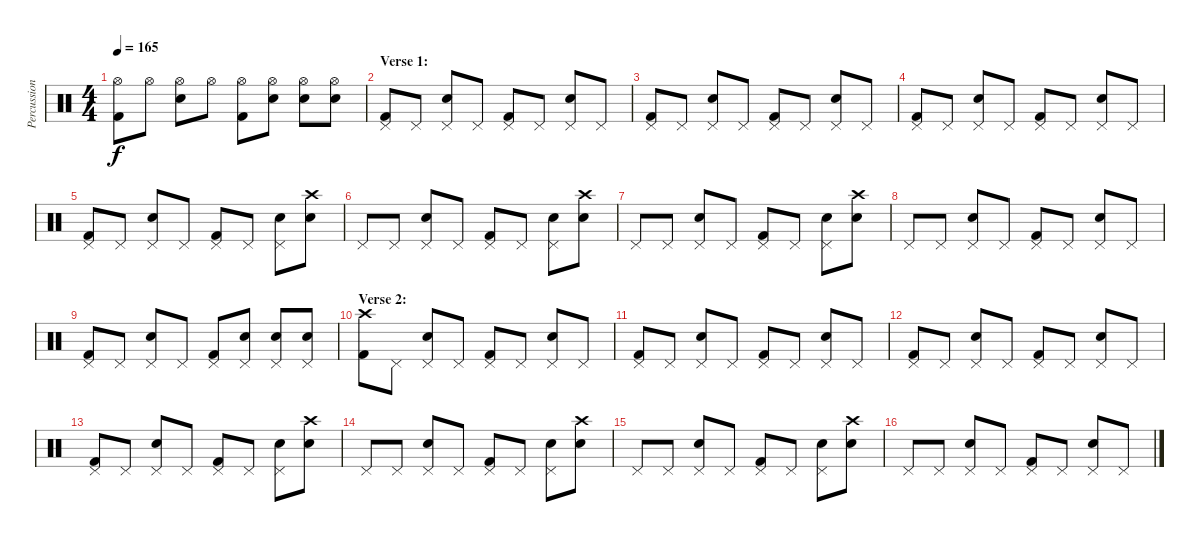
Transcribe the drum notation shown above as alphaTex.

\track ("Percussion" "Percussion") {instrument percussion}
\staff {score}
\articulation defaults
\ts (4 4)
\tempo 165
\clef neutral
\ks c
("Hi-Hat (open)" "Kick (hit) 2").8{dy f} "Hi-Hat (open)".8 ("Hi-Hat (open)" "Snare (hit) 2").8 "Hi-Hat (open)".8 ("Hi-Hat (open)" "Kick (hit) 2").8 ("Hi-Hat (open)" "Snare (hit) 2").8 ("Hi-Hat (open)" "Snare (hit) 2").8 ("Hi-Hat (open)" "Snare (hit) 2").8 |
\section ("" "Verse 1:")
("Pedal Hi-Hat (hit)" "Kick (hit) 2").8 "Pedal Hi-Hat (hit)".8 ("Pedal Hi-Hat (hit)" "Snare (hit) 2").8 "Pedal Hi-Hat (hit)".8 ("Pedal Hi-Hat (hit)" "Kick (hit) 2").8 "Pedal Hi-Hat (hit)".8 ("Pedal Hi-Hat (hit)" "Snare (hit) 2").8 "Pedal Hi-Hat (hit)".8 |
("Pedal Hi-Hat (hit)" "Kick (hit) 2").8 "Pedal Hi-Hat (hit)".8 ("Pedal Hi-Hat (hit)" "Snare (hit) 2").8 "Pedal Hi-Hat (hit)".8 ("Pedal Hi-Hat (hit)" "Kick (hit) 2").8 "Pedal Hi-Hat (hit)".8 ("Pedal Hi-Hat (hit)" "Snare (hit) 2").8 "Pedal Hi-Hat (hit)".8 |
("Pedal Hi-Hat (hit)" "Kick (hit) 2").8 "Pedal Hi-Hat (hit)".8 ("Pedal Hi-Hat (hit)" "Snare (hit) 2").8 "Pedal Hi-Hat (hit)".8 ("Pedal Hi-Hat (hit)" "Kick (hit) 2").8 "Pedal Hi-Hat (hit)".8 ("Pedal Hi-Hat (hit)" "Snare (hit) 2").8 "Pedal Hi-Hat (hit)".8 |
("Pedal Hi-Hat (hit)" "Kick (hit) 2").8 "Pedal Hi-Hat (hit)".8 ("Pedal Hi-Hat (hit)" "Snare (hit) 2").8 "Pedal Hi-Hat (hit)".8 ("Pedal Hi-Hat (hit)" "Kick (hit) 2").8 "Pedal Hi-Hat (hit)".8 ("Pedal Hi-Hat (hit)" "Snare (hit) 2").8 ("Crash high (hit)" "Snare (hit) 2").8 |
"Pedal Hi-Hat (hit)".8 "Pedal Hi-Hat (hit)".8 ("Pedal Hi-Hat (hit)" "Snare (hit) 2").8 "Pedal Hi-Hat (hit)".8 ("Pedal Hi-Hat (hit)" "Kick (hit) 2").8 "Pedal Hi-Hat (hit)".8 ("Pedal Hi-Hat (hit)" "Snare (hit) 2").8 ("Crash high (hit)" "Snare (hit) 2").8 |
"Pedal Hi-Hat (hit)".8 "Pedal Hi-Hat (hit)".8 ("Pedal Hi-Hat (hit)" "Snare (hit) 2").8 "Pedal Hi-Hat (hit)".8 ("Pedal Hi-Hat (hit)" "Kick (hit) 2").8 "Pedal Hi-Hat (hit)".8 ("Pedal Hi-Hat (hit)" "Snare (hit) 2").8 ("Crash high (hit)" "Snare (hit) 2").8 |
"Pedal Hi-Hat (hit)".8 "Pedal Hi-Hat (hit)".8 ("Pedal Hi-Hat (hit)" "Snare (hit) 2").8 "Pedal Hi-Hat (hit)".8 ("Pedal Hi-Hat (hit)" "Kick (hit) 2").8 "Pedal Hi-Hat (hit)".8 ("Pedal Hi-Hat (hit)" "Snare (hit) 2").8 "Pedal Hi-Hat (hit)".8 |
("Pedal Hi-Hat (hit)" "Kick (hit) 2").8 "Pedal Hi-Hat (hit)".8 ("Pedal Hi-Hat (hit)" "Snare (hit) 2").8 "Pedal Hi-Hat (hit)".8 ("Pedal Hi-Hat (hit)" "Kick (hit) 2").8 ("Pedal Hi-Hat (hit)" "Snare (hit) 2").8 ("Pedal Hi-Hat (hit)" "Snare (hit) 2").8 ("Pedal Hi-Hat (hit)" "Snare (hit) 2").8 |
\section ("" "Verse 2:")
("Crash high (hit)" "Kick (hit) 2").8 "Pedal Hi-Hat (hit)".8 ("Pedal Hi-Hat (hit)" "Snare (hit) 2").8 "Pedal Hi-Hat (hit)".8 ("Pedal Hi-Hat (hit)" "Kick (hit) 2").8 "Pedal Hi-Hat (hit)".8 ("Pedal Hi-Hat (hit)" "Snare (hit) 2").8 "Pedal Hi-Hat (hit)".8 |
("Pedal Hi-Hat (hit)" "Kick (hit) 2").8 "Pedal Hi-Hat (hit)".8 ("Pedal Hi-Hat (hit)" "Snare (hit) 2").8 "Pedal Hi-Hat (hit)".8 ("Pedal Hi-Hat (hit)" "Kick (hit) 2").8 "Pedal Hi-Hat (hit)".8 ("Pedal Hi-Hat (hit)" "Snare (hit) 2").8 "Pedal Hi-Hat (hit)".8 |
("Pedal Hi-Hat (hit)" "Kick (hit) 2").8 "Pedal Hi-Hat (hit)".8 ("Pedal Hi-Hat (hit)" "Snare (hit) 2").8 "Pedal Hi-Hat (hit)".8 ("Pedal Hi-Hat (hit)" "Kick (hit) 2").8 "Pedal Hi-Hat (hit)".8 ("Pedal Hi-Hat (hit)" "Snare (hit) 2").8 "Pedal Hi-Hat (hit)".8 |
("Pedal Hi-Hat (hit)" "Kick (hit) 2").8 "Pedal Hi-Hat (hit)".8 ("Pedal Hi-Hat (hit)" "Snare (hit) 2").8 "Pedal Hi-Hat (hit)".8 ("Pedal Hi-Hat (hit)" "Kick (hit) 2").8 "Pedal Hi-Hat (hit)".8 ("Pedal Hi-Hat (hit)" "Snare (hit) 2").8 ("Crash high (hit)" "Snare (hit) 2").8 |
"Pedal Hi-Hat (hit)".8 "Pedal Hi-Hat (hit)".8 ("Pedal Hi-Hat (hit)" "Snare (hit) 2").8 "Pedal Hi-Hat (hit)".8 ("Pedal Hi-Hat (hit)" "Kick (hit) 2").8 "Pedal Hi-Hat (hit)".8 ("Pedal Hi-Hat (hit)" "Snare (hit) 2").8 ("Crash high (hit)" "Snare (hit) 2").8 |
"Pedal Hi-Hat (hit)".8 "Pedal Hi-Hat (hit)".8 ("Pedal Hi-Hat (hit)" "Snare (hit) 2").8 "Pedal Hi-Hat (hit)".8 ("Pedal Hi-Hat (hit)" "Kick (hit) 2").8 "Pedal Hi-Hat (hit)".8 ("Pedal Hi-Hat (hit)" "Snare (hit) 2").8 ("Crash high (hit)" "Snare (hit) 2").8 |
"Pedal Hi-Hat (hit)".8 "Pedal Hi-Hat (hit)".8 ("Pedal Hi-Hat (hit)" "Snare (hit) 2").8 "Pedal Hi-Hat (hit)".8 ("Pedal Hi-Hat (hit)" "Kick (hit) 2").8 "Pedal Hi-Hat (hit)".8 ("Pedal Hi-Hat (hit)" "Snare (hit) 2").8 "Pedal Hi-Hat (hit)".8
